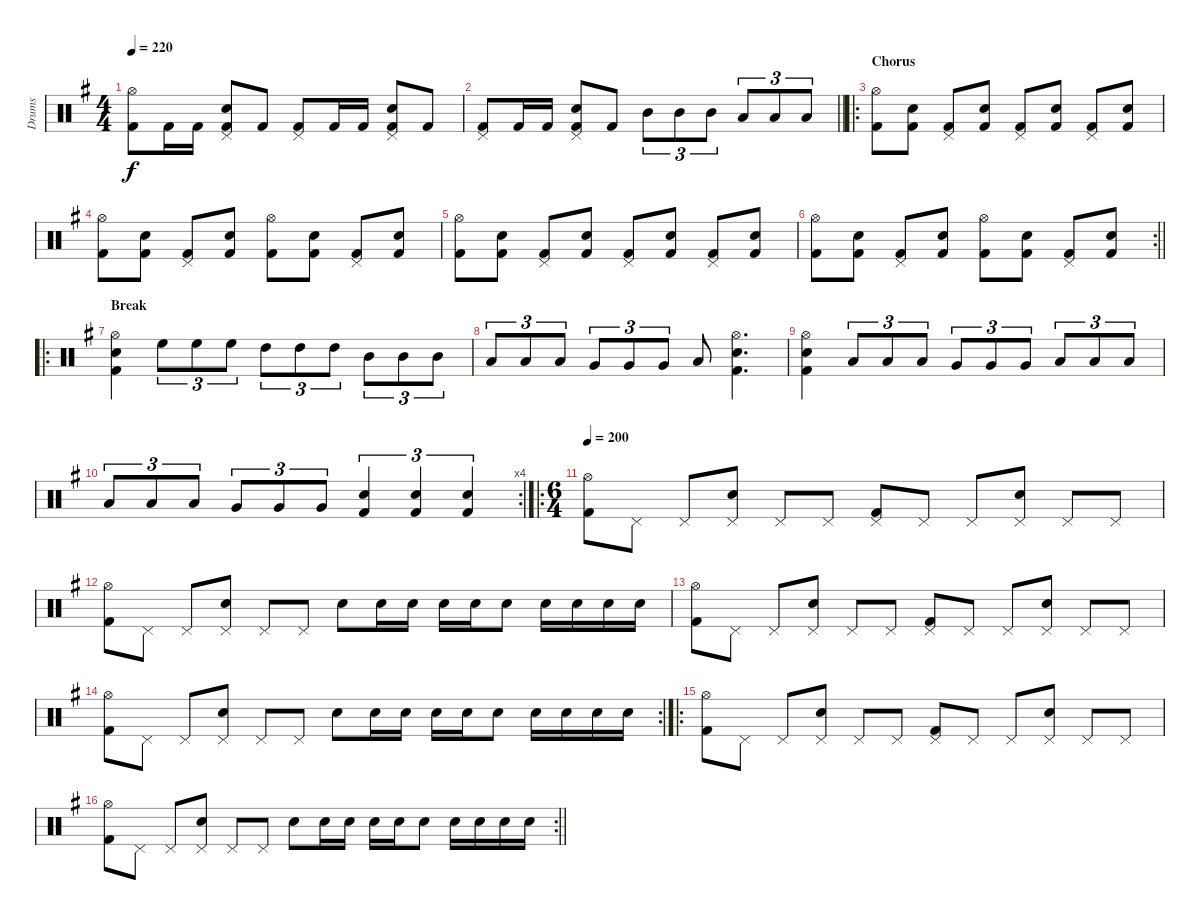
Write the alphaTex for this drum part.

\track ("Drums" "Drums") {instrument percussion}
\staff {score}
\articulation defaults
\ts (4 4)
\tempo 220
\clef neutral
\ks g
("Hi-Hat (open)" "Kick (hit) 2").8{dy f} "Kick (hit) 2".16 "Kick (hit) 2".16 ("Pedal Hi-Hat (hit)" "Snare (hit) 2" "Kick (hit) 2").8 "Kick (hit) 2".8 ("Pedal Hi-Hat (hit)" "Kick (hit) 2").8 "Kick (hit) 2".16 "Kick (hit) 2".16 ("Pedal Hi-Hat (hit)" "Snare (hit) 2" "Kick (hit) 2").8 "Kick (hit) 2".8 |
\barLineRight lightlight
("Pedal Hi-Hat (hit)" "Kick (hit) 2").8 "Kick (hit) 2".16 "Kick (hit) 2".16 ("Pedal Hi-Hat (hit)" "Snare (hit) 2" "Kick (hit) 2").8 "Kick (hit) 2".8 "Mid Tom (hit)".8{tu (3 2)} "Mid Tom (hit)".8{tu (3 2)} "Mid Tom (hit)".8{tu (3 2)} "Low Tom (hit)".8{tu (3 2)} "Low Tom (hit)".8{tu (3 2)} "Low Tom (hit)".8{tu (3 2)} |
\ro
\section ("" "Chorus")
("Hi-Hat (open)" "Kick (hit) 2").8 ("Snare (hit) 2" "Kick (hit) 2").8 ("Pedal Hi-Hat (hit)" "Kick (hit) 2").8 ("Snare (hit) 2" "Kick (hit) 2").8 ("Pedal Hi-Hat (hit)" "Kick (hit) 2").8 ("Snare (hit) 2" "Kick (hit) 2").8 ("Pedal Hi-Hat (hit)" "Kick (hit) 2").8 ("Snare (hit) 2" "Kick (hit) 2").8 |
("Hi-Hat (open)" "Kick (hit) 2").8 ("Snare (hit) 2" "Kick (hit) 2").8 ("Pedal Hi-Hat (hit)" "Kick (hit) 2").8 ("Snare (hit) 2" "Kick (hit) 2").8 ("Hi-Hat (open)" "Kick (hit) 2").8 ("Snare (hit) 2" "Kick (hit) 2").8 ("Pedal Hi-Hat (hit)" "Kick (hit) 2").8 ("Snare (hit) 2" "Kick (hit) 2").8 |
("Hi-Hat (open)" "Kick (hit) 2").8 ("Snare (hit) 2" "Kick (hit) 2").8 ("Pedal Hi-Hat (hit)" "Kick (hit) 2").8 ("Snare (hit) 2" "Kick (hit) 2").8 ("Pedal Hi-Hat (hit)" "Kick (hit) 2").8 ("Snare (hit) 2" "Kick (hit) 2").8 ("Pedal Hi-Hat (hit)" "Kick (hit) 2").8 ("Snare (hit) 2" "Kick (hit) 2").8 |
\rc 2
\barLineRight lightlight
("Hi-Hat (open)" "Kick (hit) 2").8 ("Snare (hit) 2" "Kick (hit) 2").8 ("Pedal Hi-Hat (hit)" "Kick (hit) 2").8 ("Snare (hit) 2" "Kick (hit) 2").8 ("Hi-Hat (open)" "Kick (hit) 2").8 ("Snare (hit) 2" "Kick (hit) 2").8 ("Pedal Hi-Hat (hit)" "Kick (hit) 2").8 ("Snare (hit) 2" "Kick (hit) 2").8 |
\ro
\section ("" "Break")
("Hi-Hat (open)" "Snare (hit) 2" "Kick (hit) 2").4 "High Floor Tom (hit)".8{tu (3 2)} "High Floor Tom (hit)".8{tu (3 2)} "High Floor Tom (hit)".8{tu (3 2)} "High Tom (hit)".8{tu (3 2)} "High Tom (hit)".8{tu (3 2)} "High Tom (hit)".8{tu (3 2)} "Mid Tom (hit)".8{tu (3 2)} "Mid Tom (hit)".8{tu (3 2)} "Mid Tom (hit)".8{tu (3 2)} |
"Low Tom (hit)".8{tu (3 2)} "Low Tom (hit)".8{tu (3 2)} "Low Tom (hit)".8{tu (3 2)} "Very Low Tom (hit)".8{tu (3 2)} "Very Low Tom (hit)".8{tu (3 2)} "Very Low Tom (hit)".8{tu (3 2)} "Low Floor Tom (hit)".8 ("Hi-Hat (open)" "Snare (hit) 2" "Kick (hit) 2").4{d} |
("Hi-Hat (open)" "Snare (hit) 2" "Kick (hit) 2").4 "Low Tom (hit)".8{tu (3 2)} "Low Tom (hit)".8{tu (3 2)} "Low Tom (hit)".8{tu (3 2)} "Very Low Tom (hit)".8{tu (3 2)} "Very Low Tom (hit)".8{tu (3 2)} "Very Low Tom (hit)".8{tu (3 2)} "Low Floor Tom (hit)".8{tu (3 2)} "Low Floor Tom (hit)".8{tu (3 2)} "Low Floor Tom (hit)".8{tu (3 2)} |
\rc 4 "Low Tom (hit)".8{tu (3 2)} "Low Tom (hit)".8{tu (3 2)} "Low Tom (hit)".8{tu (3 2)} "Very Low Tom (hit)".8{tu (3 2)} "Very Low Tom (hit)".8{tu (3 2)} "Very Low Tom (hit)".8{tu (3 2)}
("Snare (hit) 2" "Kick (hit) 2").4{tu (3 2)} ("Snare (hit) 2" "Kick (hit) 2").4{tu (3 2)} ("Snare (hit) 2" "Kick (hit) 2").4{tu (3 2)} |
\ro
\ts (6 4)
\tempo 200
("Hi-Hat (open)" "Kick (hit) 2").8 "Pedal Hi-Hat (hit)".8 "Pedal Hi-Hat (hit)".8 ("Pedal Hi-Hat (hit)" "Snare (hit) 2").8 "Pedal Hi-Hat (hit)".8 "Pedal Hi-Hat (hit)".8 ("Pedal Hi-Hat (hit)" "Kick (hit) 2").8 "Pedal Hi-Hat (hit)".8 "Pedal Hi-Hat (hit)".8 ("Pedal Hi-Hat (hit)" "Snare (hit) 2").8 "Pedal Hi-Hat (hit)".8 "Pedal Hi-Hat (hit)".8 |
("Hi-Hat (open)" "Kick (hit) 2").8 "Pedal Hi-Hat (hit)".8 "Pedal Hi-Hat (hit)".8 ("Pedal Hi-Hat (hit)" "Snare (hit) 2").8 "Pedal Hi-Hat (hit)".8 "Pedal Hi-Hat (hit)".8 "Snare (hit) 2".8 "Snare (hit) 2".16 "Snare (hit) 2".16 "Snare (hit) 2".16 "Snare (hit) 2".16 "Snare (hit) 2".8 "Snare (hit) 2".16 "Snare (hit) 2".16 "Snare (hit) 2".16 "Snare (hit) 2".16 |
("Hi-Hat (open)" "Kick (hit) 2").8 "Pedal Hi-Hat (hit)".8 "Pedal Hi-Hat (hit)".8 ("Pedal Hi-Hat (hit)" "Snare (hit) 2").8 "Pedal Hi-Hat (hit)".8 "Pedal Hi-Hat (hit)".8 ("Pedal Hi-Hat (hit)" "Kick (hit) 2").8 "Pedal Hi-Hat (hit)".8 "Pedal Hi-Hat (hit)".8 ("Pedal Hi-Hat (hit)" "Snare (hit) 2").8 "Pedal Hi-Hat (hit)".8 "Pedal Hi-Hat (hit)".8 |
\rc 2
("Hi-Hat (open)" "Kick (hit) 2").8 "Pedal Hi-Hat (hit)".8 "Pedal Hi-Hat (hit)".8 ("Pedal Hi-Hat (hit)" "Snare (hit) 2").8 "Pedal Hi-Hat (hit)".8 "Pedal Hi-Hat (hit)".8 "Snare (hit) 2".8 "Snare (hit) 2".16 "Snare (hit) 2".16 "Snare (hit) 2".16 "Snare (hit) 2".16 "Snare (hit) 2".8 "Snare (hit) 2".16 "Snare (hit) 2".16 "Snare (hit) 2".16 "Snare (hit) 2".16 |
\ro
("Hi-Hat (open)" "Kick (hit) 2").8 "Pedal Hi-Hat (hit)".8 "Pedal Hi-Hat (hit)".8 ("Pedal Hi-Hat (hit)" "Snare (hit) 2").8 "Pedal Hi-Hat (hit)".8 "Pedal Hi-Hat (hit)".8 ("Pedal Hi-Hat (hit)" "Kick (hit) 2").8 "Pedal Hi-Hat (hit)".8 "Pedal Hi-Hat (hit)".8 ("Pedal Hi-Hat (hit)" "Snare (hit) 2").8 "Pedal Hi-Hat (hit)".8 "Pedal Hi-Hat (hit)".8 |
\rc 2
\barLineRight lightlight
("Hi-Hat (open)" "Kick (hit) 2").8 "Pedal Hi-Hat (hit)".8 "Pedal Hi-Hat (hit)".8 ("Pedal Hi-Hat (hit)" "Snare (hit) 2").8 "Pedal Hi-Hat (hit)".8 "Pedal Hi-Hat (hit)".8 "Snare (hit) 2".8 "Snare (hit) 2".16 "Snare (hit) 2".16 "Snare (hit) 2".16 "Snare (hit) 2".16 "Snare (hit) 2".8 "Snare (hit) 2".16 "Snare (hit) 2".16 "Snare (hit) 2".16 "Snare (hit) 2".16
